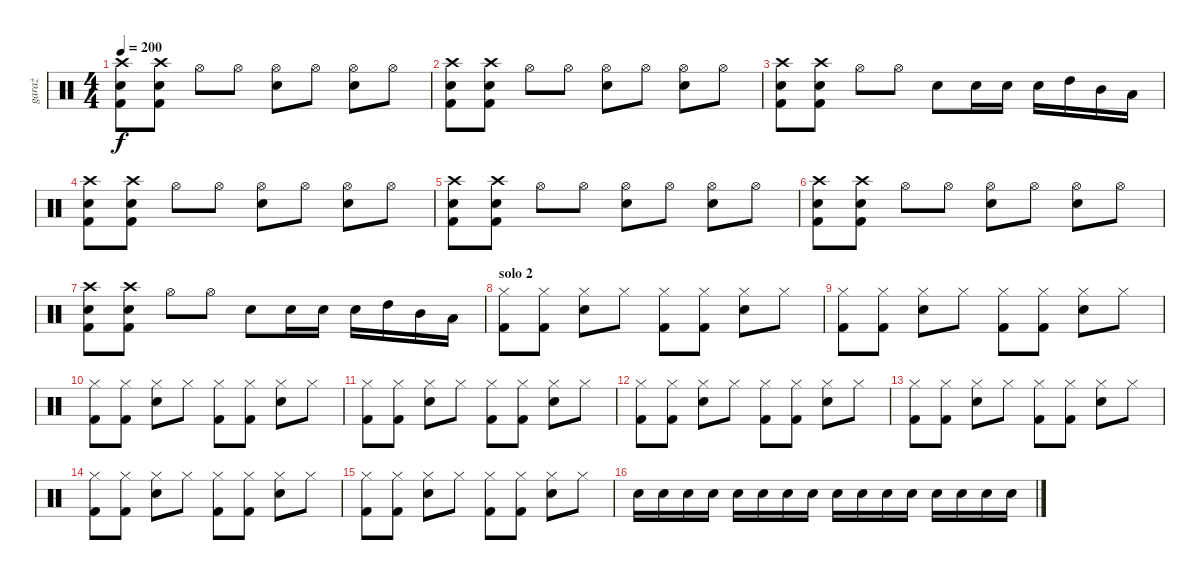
\track ("garaż" "garaż") {instrument percussion}
\staff {score}
\articulation defaults
\ts (4 4)
\tempo 200
\clef neutral
\ks c
("Crash high (hit)" "Snare (hit) 2" "Kick (hit) 2").8{dy f} ("Crash high (hit)" "Snare (hit) 2" "Kick (hit) 2").8 "Hi-Hat (open)".8 "Hi-Hat (open)".8 ("Hi-Hat (open)" "Snare (hit) 2").8 "Hi-Hat (open)".8 ("Hi-Hat (open)" "Snare (hit) 2").8 "Hi-Hat (open)".8 |
("Crash high (hit)" "Snare (hit) 2" "Kick (hit) 2").8 ("Crash high (hit)" "Snare (hit) 2" "Kick (hit) 2").8 "Hi-Hat (open)".8 "Hi-Hat (open)".8 ("Hi-Hat (open)" "Snare (hit) 2").8 "Hi-Hat (open)".8 ("Hi-Hat (open)" "Snare (hit) 2").8 "Hi-Hat (open)".8 |
("Crash high (hit)" "Snare (hit) 2" "Kick (hit) 2").8 ("Crash high (hit)" "Snare (hit) 2" "Kick (hit) 2").8 "Hi-Hat (open)".8 "Hi-Hat (open)".8 "Snare (hit) 2".8 "Snare (hit) 2".16 "Snare (hit) 2".16 "Snare (hit) 2".16 "High Tom (hit)".16 "Mid Tom (hit)".16 "Low Tom (hit)".16 |
("Crash high (hit)" "Snare (hit) 2" "Kick (hit) 2").8 ("Crash high (hit)" "Snare (hit) 2" "Kick (hit) 2").8 "Hi-Hat (open)".8 "Hi-Hat (open)".8 ("Hi-Hat (open)" "Snare (hit) 2").8 "Hi-Hat (open)".8 ("Hi-Hat (open)" "Snare (hit) 2").8 "Hi-Hat (open)".8 |
("Crash high (hit)" "Snare (hit) 2" "Kick (hit) 2").8 ("Crash high (hit)" "Snare (hit) 2" "Kick (hit) 2").8 "Hi-Hat (open)".8 "Hi-Hat (open)".8 ("Hi-Hat (open)" "Snare (hit) 2").8 "Hi-Hat (open)".8 ("Hi-Hat (open)" "Snare (hit) 2").8 "Hi-Hat (open)".8 |
("Crash high (hit)" "Snare (hit) 2" "Kick (hit) 2").8 ("Crash high (hit)" "Snare (hit) 2" "Kick (hit) 2").8 "Hi-Hat (open)".8 "Hi-Hat (open)".8 ("Hi-Hat (open)" "Snare (hit) 2").8 "Hi-Hat (open)".8 ("Hi-Hat (open)" "Snare (hit) 2").8 "Hi-Hat (open)".8 |
("Crash high (hit)" "Snare (hit) 2" "Kick (hit) 2").8 ("Crash high (hit)" "Snare (hit) 2" "Kick (hit) 2").8 "Hi-Hat (open)".8 "Hi-Hat (open)".8 "Snare (hit) 2".8 "Snare (hit) 2".16 "Snare (hit) 2".16 "Snare (hit) 2".16 "High Tom (hit)".16 "Mid Tom (hit)".16 "Low Tom (hit)".16 |
\section ("" "solo 2")
("Hi-Hat (closed)" "Kick (hit) 2").8 ("Hi-Hat (closed)" "Kick (hit) 2").8 ("Hi-Hat (closed)" "Snare (hit) 2").8 "Hi-Hat (closed)".8 ("Hi-Hat (closed)" "Kick (hit) 2").8 ("Hi-Hat (closed)" "Kick (hit) 2").8 ("Hi-Hat (closed)" "Snare (hit) 2").8 "Hi-Hat (closed)".8 |
("Hi-Hat (closed)" "Kick (hit) 2").8 ("Hi-Hat (closed)" "Kick (hit) 2").8 ("Hi-Hat (closed)" "Snare (hit) 2").8 "Hi-Hat (closed)".8 ("Hi-Hat (closed)" "Kick (hit) 2").8 ("Hi-Hat (closed)" "Kick (hit) 2").8 ("Hi-Hat (closed)" "Snare (hit) 2").8 "Hi-Hat (closed)".8 |
("Hi-Hat (closed)" "Kick (hit) 2").8 ("Hi-Hat (closed)" "Kick (hit) 2").8 ("Hi-Hat (closed)" "Snare (hit) 2").8 "Hi-Hat (closed)".8 ("Hi-Hat (closed)" "Kick (hit) 2").8 ("Hi-Hat (closed)" "Kick (hit) 2").8 ("Hi-Hat (closed)" "Snare (hit) 2").8 "Hi-Hat (closed)".8 |
("Hi-Hat (closed)" "Kick (hit) 2").8 ("Hi-Hat (closed)" "Kick (hit) 2").8 ("Hi-Hat (closed)" "Snare (hit) 2").8 "Hi-Hat (closed)".8 ("Hi-Hat (closed)" "Kick (hit) 2").8 ("Hi-Hat (closed)" "Kick (hit) 2").8 ("Hi-Hat (closed)" "Snare (hit) 2").8 "Hi-Hat (closed)".8 |
("Hi-Hat (closed)" "Kick (hit) 2").8 ("Hi-Hat (closed)" "Kick (hit) 2").8 ("Hi-Hat (closed)" "Snare (hit) 2").8 "Hi-Hat (closed)".8 ("Hi-Hat (closed)" "Kick (hit) 2").8 ("Hi-Hat (closed)" "Kick (hit) 2").8 ("Hi-Hat (closed)" "Snare (hit) 2").8 "Hi-Hat (closed)".8 |
("Hi-Hat (closed)" "Kick (hit) 2").8 ("Hi-Hat (closed)" "Kick (hit) 2").8 ("Hi-Hat (closed)" "Snare (hit) 2").8 "Hi-Hat (closed)".8 ("Hi-Hat (closed)" "Kick (hit) 2").8 ("Hi-Hat (closed)" "Kick (hit) 2").8 ("Hi-Hat (closed)" "Snare (hit) 2").8 "Hi-Hat (closed)".8 |
("Hi-Hat (closed)" "Kick (hit) 2").8 ("Hi-Hat (closed)" "Kick (hit) 2").8 ("Hi-Hat (closed)" "Snare (hit) 2").8 "Hi-Hat (closed)".8 ("Hi-Hat (closed)" "Kick (hit) 2").8 ("Hi-Hat (closed)" "Kick (hit) 2").8 ("Hi-Hat (closed)" "Snare (hit) 2").8 "Hi-Hat (closed)".8 |
("Hi-Hat (closed)" "Kick (hit) 2").8 ("Hi-Hat (closed)" "Kick (hit) 2").8 ("Hi-Hat (closed)" "Snare (hit) 2").8 "Hi-Hat (closed)".8 ("Hi-Hat (closed)" "Kick (hit) 2").8 ("Hi-Hat (closed)" "Kick (hit) 2").8 ("Hi-Hat (closed)" "Snare (hit) 2").8 "Hi-Hat (closed)".8{volume 16} |
"Snare (hit) 2".16{volume 0} "Snare (hit) 2".16 "Snare (hit) 2".16 "Snare (hit) 2".16 "Snare (hit) 2".16 "Snare (hit) 2".16 "Snare (hit) 2".16 "Snare (hit) 2".16 "Snare (hit) 2".16 "Snare (hit) 2".16 "Snare (hit) 2".16 "Snare (hit) 2".16 "Snare (hit) 2".16 "Snare (hit) 2".16 "Snare (hit) 2".16 "Snare (hit) 2".16
